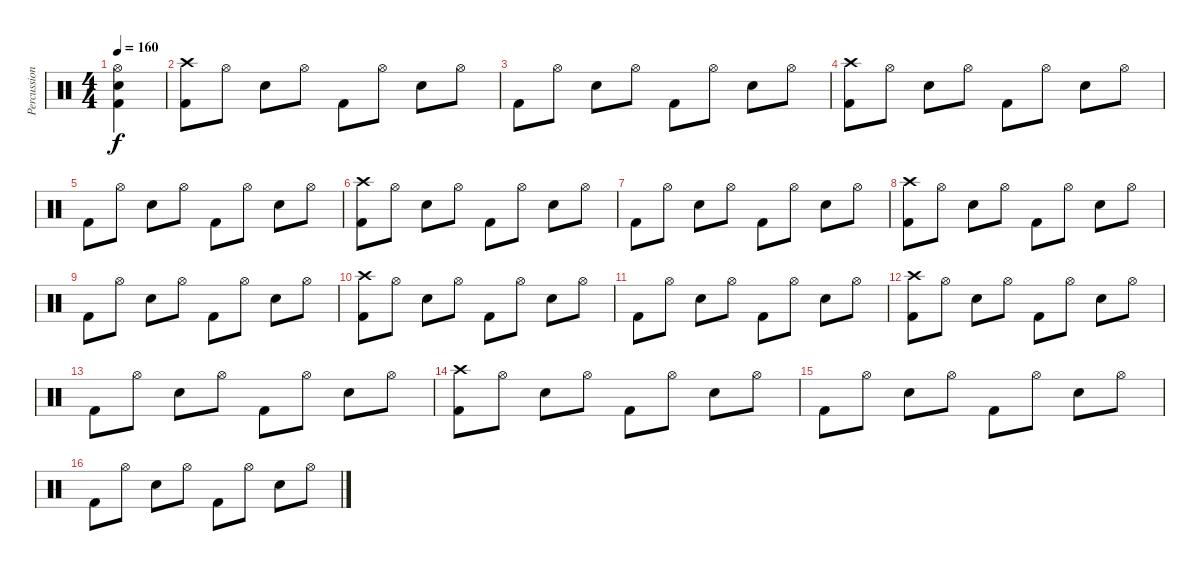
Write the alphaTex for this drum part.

\track ("Percussion" "Percussion") {instrument percussion}
\staff {score}
\articulation defaults
\ts (4 4)
\tempo 160
\clef neutral
\ks c
("Kick (hit) 2" "Electric Snare (hit)" "Hi-Hat (open)").4{dy f} |
("Kick (hit) 2" "Crash high (hit)").8 "Hi-Hat (open)".8 "Electric Snare (hit)".8 "Hi-Hat (open)".8 "Kick (hit) 2".8 "Hi-Hat (open)".8 "Electric Snare (hit)".8 "Hi-Hat (open)".8 |
"Kick (hit) 2".8 "Hi-Hat (open)".8 "Electric Snare (hit)".8 "Hi-Hat (open)".8 "Kick (hit) 2".8 "Hi-Hat (open)".8 "Electric Snare (hit)".8 "Hi-Hat (open)".8 |
("Kick (hit) 2" "Crash high (hit)").8 "Hi-Hat (open)".8 "Electric Snare (hit)".8 "Hi-Hat (open)".8 "Kick (hit) 2".8 "Hi-Hat (open)".8 "Electric Snare (hit)".8 "Hi-Hat (open)".8 |
"Kick (hit) 2".8 "Hi-Hat (open)".8 "Electric Snare (hit)".8 "Hi-Hat (open)".8 "Kick (hit) 2".8 "Hi-Hat (open)".8 "Electric Snare (hit)".8 "Hi-Hat (open)".8 |
("Kick (hit) 2" "Crash high (hit)").8 "Hi-Hat (open)".8 "Electric Snare (hit)".8 "Hi-Hat (open)".8 "Kick (hit) 2".8 "Hi-Hat (open)".8 "Electric Snare (hit)".8 "Hi-Hat (open)".8 |
"Kick (hit) 2".8 "Hi-Hat (open)".8 "Electric Snare (hit)".8 "Hi-Hat (open)".8 "Kick (hit) 2".8 "Hi-Hat (open)".8 "Electric Snare (hit)".8 "Hi-Hat (open)".8 |
("Kick (hit) 2" "Crash high (hit)").8 "Hi-Hat (open)".8 "Electric Snare (hit)".8 "Hi-Hat (open)".8 "Kick (hit) 2".8 "Hi-Hat (open)".8 "Electric Snare (hit)".8 "Hi-Hat (open)".8 |
"Kick (hit) 2".8 "Hi-Hat (open)".8 "Electric Snare (hit)".8 "Hi-Hat (open)".8 "Kick (hit) 2".8 "Hi-Hat (open)".8 "Electric Snare (hit)".8 "Hi-Hat (open)".8 |
("Kick (hit) 2" "Crash high (hit)").8 "Hi-Hat (open)".8 "Electric Snare (hit)".8 "Hi-Hat (open)".8 "Kick (hit) 2".8 "Hi-Hat (open)".8 "Electric Snare (hit)".8 "Hi-Hat (open)".8 |
"Kick (hit) 2".8 "Hi-Hat (open)".8 "Electric Snare (hit)".8 "Hi-Hat (open)".8 "Kick (hit) 2".8 "Hi-Hat (open)".8 "Electric Snare (hit)".8 "Hi-Hat (open)".8 |
("Kick (hit) 2" "Crash high (hit)").8 "Hi-Hat (open)".8 "Electric Snare (hit)".8 "Hi-Hat (open)".8 "Kick (hit) 2".8 "Hi-Hat (open)".8 "Electric Snare (hit)".8 "Hi-Hat (open)".8 |
"Kick (hit) 2".8 "Hi-Hat (open)".8 "Electric Snare (hit)".8 "Hi-Hat (open)".8 "Kick (hit) 2".8 "Hi-Hat (open)".8 "Electric Snare (hit)".8 "Hi-Hat (open)".8 |
("Kick (hit) 2" "Crash high (hit)").8 "Hi-Hat (open)".8 "Electric Snare (hit)".8 "Hi-Hat (open)".8 "Kick (hit) 2".8 "Hi-Hat (open)".8 "Electric Snare (hit)".8 "Hi-Hat (open)".8 |
"Kick (hit) 2".8 "Hi-Hat (open)".8 "Electric Snare (hit)".8 "Hi-Hat (open)".8 "Kick (hit) 2".8 "Hi-Hat (open)".8 "Electric Snare (hit)".8 "Hi-Hat (open)".8 |
"Kick (hit) 2".8 "Hi-Hat (open)".8 "Electric Snare (hit)".8 "Hi-Hat (open)".8 "Kick (hit) 2".8 "Hi-Hat (open)".8 "Electric Snare (hit)".8 "Hi-Hat (open)".8
